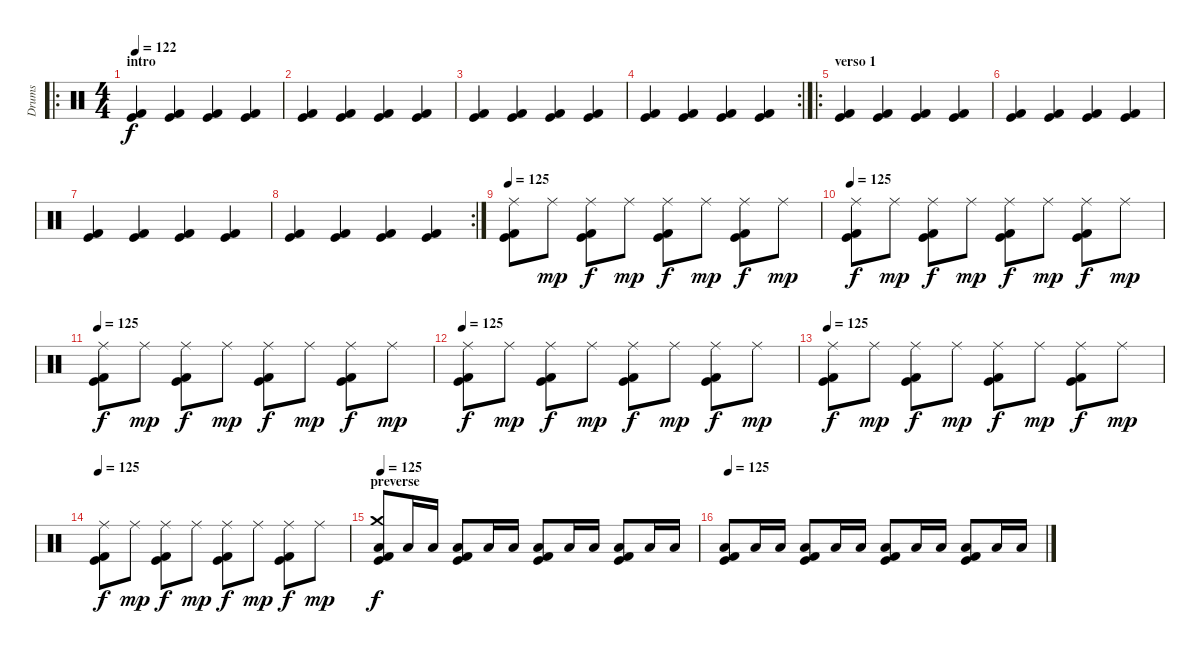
\track ("Drums" "Drums") {instrument percussion}
\staff {score}
\articulation defaults
\ro
\ts (4 4)
\section ("" "intro")
\tempo 122
\clef neutral
\ks c
("Kick (hit) 2" "Kick (hit)").4{dy f} ("Kick (hit) 2" "Kick (hit)").4 ("Kick (hit) 2" "Kick (hit)").4 ("Kick (hit) 2" "Kick (hit)").4 |
("Kick (hit) 2" "Kick (hit)").4 ("Kick (hit) 2" "Kick (hit)").4 ("Kick (hit) 2" "Kick (hit)").4 ("Kick (hit) 2" "Kick (hit)").4 |
("Kick (hit) 2" "Kick (hit)").4 ("Kick (hit) 2" "Kick (hit)").4 ("Kick (hit) 2" "Kick (hit)").4 ("Kick (hit) 2" "Kick (hit)").4 |
\rc 2
("Kick (hit) 2" "Kick (hit)").4 ("Kick (hit) 2" "Kick (hit)").4 ("Kick (hit) 2" "Kick (hit)").4 ("Kick (hit) 2" "Kick (hit)").4 |
\ro
\section ("" "verso 1")
("Kick (hit) 2" "Kick (hit)").4 ("Kick (hit) 2" "Kick (hit)").4 ("Kick (hit) 2" "Kick (hit)").4 ("Kick (hit) 2" "Kick (hit)").4 |
("Kick (hit) 2" "Kick (hit)").4 ("Kick (hit) 2" "Kick (hit)").4 ("Kick (hit) 2" "Kick (hit)").4 ("Kick (hit) 2" "Kick (hit)").4 |
("Kick (hit) 2" "Kick (hit)").4 ("Kick (hit) 2" "Kick (hit)").4 ("Kick (hit) 2" "Kick (hit)").4 ("Kick (hit) 2" "Kick (hit)").4 |
\rc 2
("Kick (hit) 2" "Kick (hit)").4 ("Kick (hit) 2" "Kick (hit)").4 ("Kick (hit) 2" "Kick (hit)").4 ("Kick (hit) 2" "Kick (hit)").4 |
\tempo 125
("Ride (middle)" "Kick (hit) 2" "Kick (hit)").8 "Ride (middle)".8{dy mp} ("Ride (middle)" "Kick (hit) 2" "Kick (hit)").8{dy f} "Ride (middle)".8{dy mp} ("Ride (middle)" "Kick (hit) 2" "Kick (hit)").8{dy f} "Ride (middle)".8{dy mp} ("Ride (middle)" "Kick (hit) 2" "Kick (hit)").8{dy f} "Ride (middle)".8{dy mp} |
\tempo 125
("Ride (middle)" "Kick (hit) 2" "Kick (hit)").8{dy f} "Ride (middle)".8{dy mp} ("Ride (middle)" "Kick (hit) 2" "Kick (hit)").8{dy f} "Ride (middle)".8{dy mp} ("Ride (middle)" "Kick (hit) 2" "Kick (hit)").8{dy f} "Ride (middle)".8{dy mp} ("Ride (middle)" "Kick (hit) 2" "Kick (hit)").8{dy f} "Ride (middle)".8{dy mp} |
\tempo 125
("Ride (middle)" "Kick (hit) 2" "Kick (hit)").8{dy f} "Ride (middle)".8{dy mp} ("Ride (middle)" "Kick (hit) 2" "Kick (hit)").8{dy f} "Ride (middle)".8{dy mp} ("Ride (middle)" "Kick (hit) 2" "Kick (hit)").8{dy f} "Ride (middle)".8{dy mp} ("Ride (middle)" "Kick (hit) 2" "Kick (hit)").8{dy f} "Ride (middle)".8{dy mp} |
\tempo 125
("Ride (middle)" "Kick (hit) 2" "Kick (hit)").8{dy f} "Ride (middle)".8{dy mp} ("Ride (middle)" "Kick (hit) 2" "Kick (hit)").8{dy f} "Ride (middle)".8{dy mp} ("Ride (middle)" "Kick (hit) 2" "Kick (hit)").8{dy f} "Ride (middle)".8{dy mp} ("Ride (middle)" "Kick (hit) 2" "Kick (hit)").8{dy f} "Ride (middle)".8{dy mp} |
\tempo 125
("Ride (middle)" "Kick (hit) 2" "Kick (hit)").8{dy f} "Ride (middle)".8{dy mp} ("Ride (middle)" "Kick (hit) 2" "Kick (hit)").8{dy f} "Ride (middle)".8{dy mp} ("Ride (middle)" "Kick (hit) 2" "Kick (hit)").8{dy f} "Ride (middle)".8{dy mp} ("Ride (middle)" "Kick (hit) 2" "Kick (hit)").8{dy f} "Ride (middle)".8{dy mp} |
\tempo 125
("Ride (middle)" "Kick (hit) 2" "Kick (hit)").8{dy f} "Ride (middle)".8{dy mp} ("Ride (middle)" "Kick (hit) 2" "Kick (hit)").8{dy f} "Ride (middle)".8{dy mp} ("Ride (middle)" "Kick (hit) 2" "Kick (hit)").8{dy f} "Ride (middle)".8{dy mp} ("Ride (middle)" "Kick (hit) 2" "Kick (hit)").8{dy f} "Ride (middle)".8{dy mp} |
\section ("" "preverse")
\tempo 125
("Crash medium (hit)" "Low Tom (hit)" "Kick (hit) 2" "Kick (hit)").8{dy f} "Low Tom (hit)".16 "Low Tom (hit)".16 ("Low Tom (hit)" "Kick (hit) 2" "Kick (hit)").8 "Low Tom (hit)".16 "Low Tom (hit)".16 ("Low Tom (hit)" "Kick (hit) 2" "Kick (hit)").8 "Low Tom (hit)".16 "Low Tom (hit)".16 ("Low Tom (hit)" "Kick (hit) 2" "Kick (hit)").8 "Low Tom (hit)".16 "Low Tom (hit)".16 |
\tempo 125
("Low Tom (hit)" "Kick (hit) 2" "Kick (hit)").8 "Low Tom (hit)".16 "Low Tom (hit)".16 ("Low Tom (hit)" "Kick (hit) 2" "Kick (hit)").8 "Low Tom (hit)".16 "Low Tom (hit)".16 ("Low Tom (hit)" "Kick (hit) 2" "Kick (hit)").8 "Low Tom (hit)".16 "Low Tom (hit)".16 ("Low Tom (hit)" "Kick (hit) 2" "Kick (hit)").8 "Low Tom (hit)".16 "Low Tom (hit)".16
